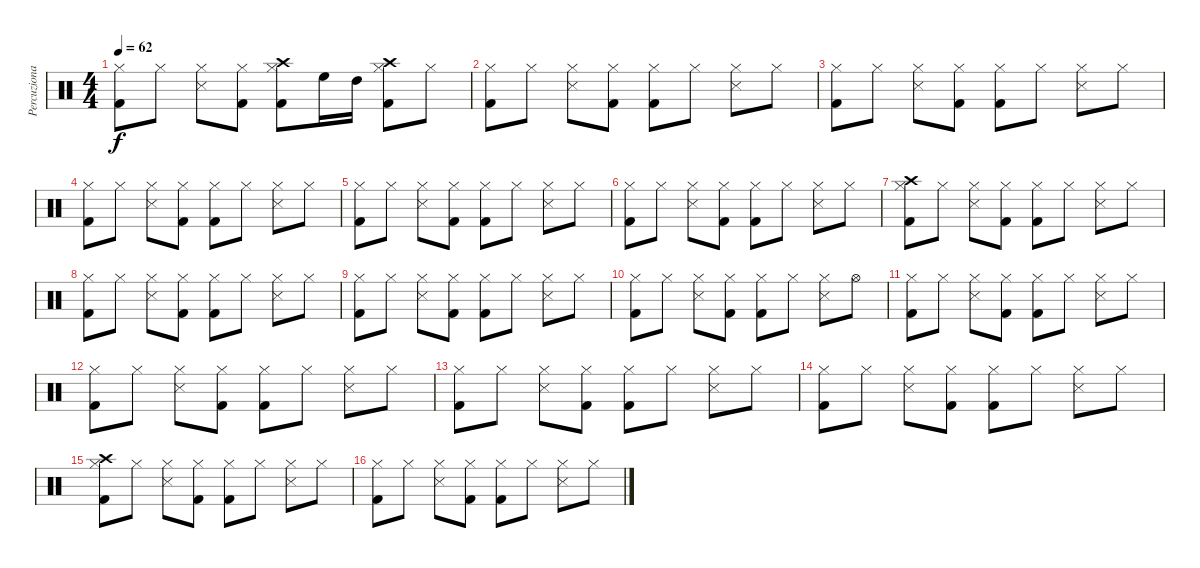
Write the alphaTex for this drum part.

\track ("Percuzionale" "Percuziona") {instrument percussion}
\staff {score}
\articulation defaults
\ts (4 4)
\tempo 62
\clef neutral
\ks c
("Hi-Hat (closed)" "Kick (hit) 2").8{dy f} "Hi-Hat (closed)".8 ("Hi-Hat (closed)" "Snare (side stick) 3").8 ("Hi-Hat (closed)" "Kick (hit) 2").8 ("Crash high (hit)" "Hi-Hat (closed)" "Kick (hit) 2").8 "High Floor Tom (hit)".16 "High Tom (hit)".16 ("Crash high (hit)" "Hi-Hat (closed)" "Kick (hit) 2").8 "Hi-Hat (closed)".8 |
("Hi-Hat (closed)" "Kick (hit) 2").8 "Hi-Hat (closed)".8 ("Hi-Hat (closed)" "Snare (side stick) 3").8 ("Hi-Hat (closed)" "Kick (hit) 2").8 ("Hi-Hat (closed)" "Kick (hit) 2").8 "Hi-Hat (closed)".8 ("Hi-Hat (closed)" "Snare (side stick) 3").8 "Hi-Hat (closed)".8 |
("Hi-Hat (closed)" "Kick (hit) 2").8 "Hi-Hat (closed)".8 ("Hi-Hat (closed)" "Snare (side stick) 3").8 ("Hi-Hat (closed)" "Kick (hit) 2").8 ("Hi-Hat (closed)" "Kick (hit) 2").8 "Hi-Hat (closed)".8 ("Hi-Hat (closed)" "Snare (side stick) 3").8 "Hi-Hat (closed)".8 |
("Hi-Hat (closed)" "Kick (hit) 2").8 "Hi-Hat (closed)".8 ("Hi-Hat (closed)" "Snare (side stick) 3").8 ("Hi-Hat (closed)" "Kick (hit) 2").8 ("Hi-Hat (closed)" "Kick (hit) 2").8 "Hi-Hat (closed)".8 ("Hi-Hat (closed)" "Snare (side stick) 3").8 "Hi-Hat (closed)".8 |
("Hi-Hat (closed)" "Kick (hit) 2").8 "Hi-Hat (closed)".8 ("Hi-Hat (closed)" "Snare (side stick) 3").8 ("Hi-Hat (closed)" "Kick (hit) 2").8 ("Hi-Hat (closed)" "Kick (hit) 2").8 "Hi-Hat (closed)".8 ("Hi-Hat (closed)" "Snare (side stick) 3").8 "Hi-Hat (closed)".8 |
("Hi-Hat (closed)" "Kick (hit) 2").8 "Hi-Hat (closed)".8 ("Hi-Hat (closed)" "Snare (side stick) 3").8 ("Hi-Hat (closed)" "Kick (hit) 2").8 ("Hi-Hat (closed)" "Kick (hit) 2").8 "Hi-Hat (closed)".8 ("Hi-Hat (closed)" "Snare (side stick) 3").8 "Hi-Hat (closed)".8 |
("Crash high (hit)" "Hi-Hat (closed)" "Kick (hit) 2").8 "Hi-Hat (closed)".8 ("Hi-Hat (closed)" "Snare (side stick) 3").8 ("Hi-Hat (closed)" "Kick (hit) 2").8 ("Hi-Hat (closed)" "Kick (hit) 2").8 "Hi-Hat (closed)".8 ("Hi-Hat (closed)" "Snare (side stick) 3").8 "Hi-Hat (closed)".8 |
("Hi-Hat (closed)" "Kick (hit) 2").8 "Hi-Hat (closed)".8 ("Hi-Hat (closed)" "Snare (side stick) 3").8 ("Hi-Hat (closed)" "Kick (hit) 2").8 ("Hi-Hat (closed)" "Kick (hit) 2").8 "Hi-Hat (closed)".8 ("Hi-Hat (closed)" "Snare (side stick) 3").8 "Hi-Hat (closed)".8 |
("Hi-Hat (closed)" "Kick (hit) 2").8 "Hi-Hat (closed)".8 ("Hi-Hat (closed)" "Snare (side stick) 3").8 ("Hi-Hat (closed)" "Kick (hit) 2").8 ("Hi-Hat (closed)" "Kick (hit) 2").8 "Hi-Hat (closed)".8 ("Hi-Hat (closed)" "Snare (side stick) 3").8 "Hi-Hat (closed)".8 |
("Hi-Hat (closed)" "Kick (hit) 2").8 "Hi-Hat (closed)".8 ("Hi-Hat (closed)" "Snare (side stick) 3").8 ("Hi-Hat (closed)" "Kick (hit) 2").8 ("Hi-Hat (closed)" "Kick (hit) 2").8 "Hi-Hat (closed)".8 ("Hi-Hat (closed)" "Snare (side stick) 3").8 "Hi-Hat (open)".8 |
("Hi-Hat (closed)" "Kick (hit) 2").8 "Hi-Hat (closed)".8 ("Hi-Hat (closed)" "Snare (side stick) 3").8 ("Hi-Hat (closed)" "Kick (hit) 2").8 ("Hi-Hat (closed)" "Kick (hit) 2").8 "Hi-Hat (closed)".8 ("Hi-Hat (closed)" "Snare (side stick) 3").8 "Hi-Hat (closed)".8 |
("Hi-Hat (closed)" "Kick (hit) 2").8 "Hi-Hat (closed)".8 ("Hi-Hat (closed)" "Snare (side stick) 3").8 ("Hi-Hat (closed)" "Kick (hit) 2").8 ("Hi-Hat (closed)" "Kick (hit) 2").8 "Hi-Hat (closed)".8 ("Hi-Hat (closed)" "Snare (side stick) 3").8 "Hi-Hat (closed)".8 |
("Hi-Hat (closed)" "Kick (hit) 2").8 "Hi-Hat (closed)".8 ("Hi-Hat (closed)" "Snare (side stick) 3").8 ("Hi-Hat (closed)" "Kick (hit) 2").8 ("Hi-Hat (closed)" "Kick (hit) 2").8 "Hi-Hat (closed)".8 ("Hi-Hat (closed)" "Snare (side stick) 3").8 "Hi-Hat (closed)".8 |
("Hi-Hat (closed)" "Kick (hit) 2").8 "Hi-Hat (closed)".8 ("Hi-Hat (closed)" "Snare (side stick) 3").8 ("Hi-Hat (closed)" "Kick (hit) 2").8 ("Hi-Hat (closed)" "Kick (hit) 2").8 "Hi-Hat (closed)".8 ("Hi-Hat (closed)" "Snare (side stick) 3").8 "Hi-Hat (closed)".8 |
("Crash high (hit)" "Hi-Hat (closed)" "Kick (hit) 2").8 "Hi-Hat (closed)".8 ("Hi-Hat (closed)" "Snare (side stick) 3").8 ("Hi-Hat (closed)" "Kick (hit) 2").8 ("Hi-Hat (closed)" "Kick (hit) 2").8 "Hi-Hat (closed)".8 ("Hi-Hat (closed)" "Snare (side stick) 3").8 "Hi-Hat (closed)".8 |
("Hi-Hat (closed)" "Kick (hit) 2").8 "Hi-Hat (closed)".8 ("Hi-Hat (closed)" "Snare (side stick) 3").8 ("Hi-Hat (closed)" "Kick (hit) 2").8 ("Hi-Hat (closed)" "Kick (hit) 2").8 "Hi-Hat (closed)".8 ("Hi-Hat (closed)" "Snare (side stick) 3").8 "Hi-Hat (closed)".8
